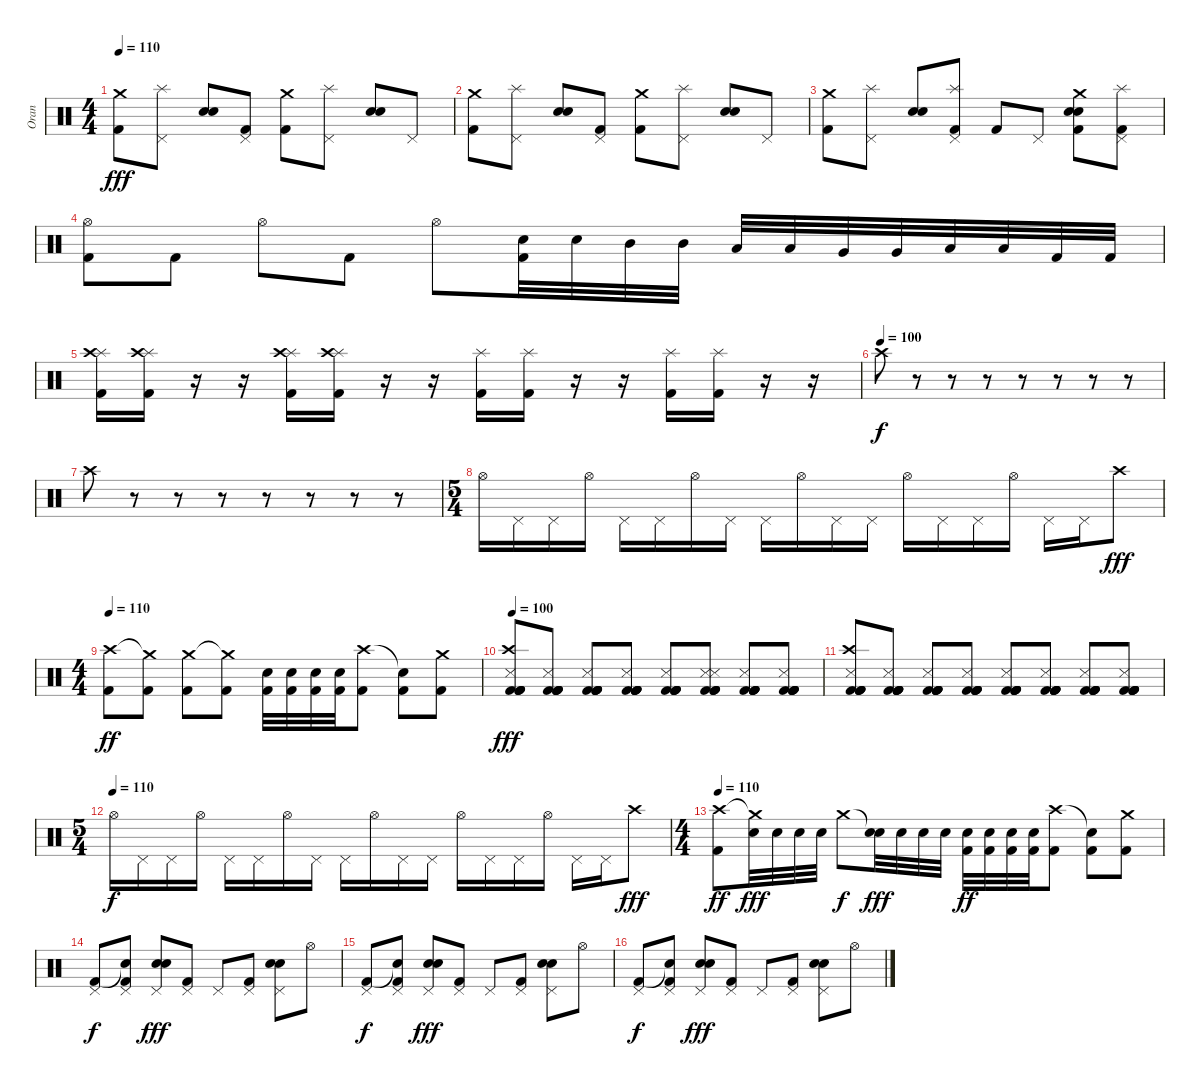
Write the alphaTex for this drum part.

\track ("Oran" "Oran") {instrument percussion}
\staff {score}
\articulation defaults
\ts (4 4)
\tempo 110
\clef neutral
\ks c
("Crash medium (hit)" "Kick (hit) 2").8{dy fff} ("Splash (hit)" "Pedal Hi-Hat (hit)").8 ("Snare (hit) 2" "Electric Snare (hit)").8 ("Pedal Hi-Hat (hit)" "Kick (hit) 2").8 ("Crash medium (hit)" "Kick (hit) 2").8 ("Splash (hit)" "Pedal Hi-Hat (hit)").8 ("Electric Snare (hit)" "Snare (hit) 2").8 "Pedal Hi-Hat (hit)".8 |
("Crash medium (hit)" "Kick (hit) 2").8 ("Splash (hit)" "Pedal Hi-Hat (hit)").8 ("Snare (hit) 2" "Electric Snare (hit)").8 ("Pedal Hi-Hat (hit)" "Kick (hit) 2").8 ("Crash medium (hit)" "Kick (hit) 2").8 ("Splash (hit)" "Pedal Hi-Hat (hit)").8 ("Electric Snare (hit)" "Snare (hit) 2").8 "Pedal Hi-Hat (hit)".8 |
("Crash medium (hit)" "Kick (hit) 2").8 ("Splash (hit)" "Pedal Hi-Hat (hit)").8 ("Snare (hit) 2" "Electric Snare (hit)").8 ("Splash (hit)" "Pedal Hi-Hat (hit)" "Kick (hit) 2").8 "Kick (hit) 2".8 "Pedal Hi-Hat (hit)".8 ("Crash medium (hit)" "Electric Snare (hit)" "Snare (hit) 2" "Kick (hit) 2").8 ("Splash (hit)" "Pedal Hi-Hat (hit)" "Kick (hit) 2").8 |
("Hi-Hat (open)" "Kick (hit) 2").8 "Kick (hit) 2".8 "Hi-Hat (open)".8 "Kick (hit) 2".8 "Hi-Hat (open)".8 ("Electric Snare (hit)" "Kick (hit) 2").32 "Electric Snare (hit)".32 "Mid Tom (hit)".32 "Mid Tom (hit)".32 "Low Tom (hit)".32 "Low Tom (hit)".32 "Very Low Tom (hit)".32 "Very Low Tom (hit)".32 "Low Floor Tom (hit)".32 "Low Floor Tom (hit)".32 "Kick (hit) 2".32 "Kick (hit) 2".32 |
("Splash (hit)" "Crash high (hit)" "Kick (hit) 2").16 ("Splash (hit)" "Crash high (hit)" "Kick (hit) 2").16 r.16 r.16 ("Splash (hit)" "Crash high (hit)" "Kick (hit) 2").16 ("Splash (hit)" "Crash high (hit)" "Kick (hit) 2").16 r.16 r.16 ("Splash (hit)" "Kick (hit) 2").16 ("Splash (hit)" "Kick (hit) 2").16 r.16 r.16 ("Splash (hit)" "Kick (hit) 2").16 ("Splash (hit)" "Kick (hit) 2").16 r.16 r.16 |
\tempo (100)
"Crash high (hit)".8{dy f} r.8 r.8 r.8 r.8 r.8 r.8 r.8 |
"Crash high (hit)".8 r.8 r.8 r.8 r.8 r.8 r.8 r.8 |
\ts (5 4)
"Hi-Hat (open)".16 "Pedal Hi-Hat (hit)".16 "Pedal Hi-Hat (hit)".16 "Hi-Hat (open)".16 "Pedal Hi-Hat (hit)".16 "Pedal Hi-Hat (hit)".16 "Hi-Hat (open)".16 "Pedal Hi-Hat (hit)".16 "Pedal Hi-Hat (hit)".16 "Hi-Hat (open)".16 "Pedal Hi-Hat (hit)".16 "Pedal Hi-Hat (hit)".16 "Hi-Hat (open)".16 "Pedal Hi-Hat (hit)".16 "Pedal Hi-Hat (hit)".16 "Hi-Hat (open)".16 "Pedal Hi-Hat (hit)".16 "Pedal Hi-Hat (hit)".16 "Crash high (hit)".8{dy fff} |
\ts (4 4)
\tempo 110
("Crash high (hit)" "Kick (hit) 2").8{dy ff} ("Crash medium (hit)"{t} "Kick (hit) 2").8 ("Crash medium (hit)" "Kick (hit) 2").8 ("Crash medium (hit)"{t} "Kick (hit) 2").8 ("Snare (hit) 2" "Kick (hit) 2").32 ("Snare (hit) 2" "Kick (hit) 2").32 ("Snare (hit) 2" "Kick (hit) 2").32 ("Snare (hit) 2" "Kick (hit) 2").32 ("Crash high (hit)" "Kick (hit) 2").8 ("Snare (hit)"{t} "Kick (hit) 2").8 ("Crash medium (hit)" "Kick (hit) 2").8 |
\tempo 100
("Kick (hit) 2" "Kick (hit) 2" "Crash high (hit)" "Snare (side stick) 3" "Kick (hit) 2" "Kick (hit) 2").8{dy fff} ("Kick (hit) 2" "Kick (hit) 2" "Kick (hit) 2" "Snare (side stick) 3" "Kick (hit) 2" "Kick (hit) 2").8 ("Kick (hit) 2" "Kick (hit) 2" "Kick (hit) 2" "Snare (side stick) 3" "Kick (hit) 2" "Kick (hit) 2").8 ("Kick (hit) 2" "Kick (hit) 2" "Kick (hit) 2" "Snare (side stick) 3" "Kick (hit) 2" "Kick (hit) 2").8 ("Kick (hit) 2" "Kick (hit) 2" "Kick (hit) 2" "Snare (side stick) 3" "Kick (hit) 2" "Kick (hit) 2").8 ("Kick (hit) 2" "Kick (hit) 2" "Kick (hit) 2" "Snare (side stick) 3" "Snare (side stick) 3" "Kick (hit) 2").8 ("Kick (hit) 2" "Kick (hit) 2" "Kick (hit) 2" "Snare (side stick) 3" "Kick (hit) 2" "Kick (hit) 2").8 ("Kick (hit) 2" "Kick (hit) 2" "Kick (hit) 2" "Snare (side stick) 3" "Kick (hit) 2" "Kick (hit) 2").8 |
("Kick (hit) 2" "Kick (hit) 2" "Kick (hit) 2" "Crash high (hit)" "Snare (side stick) 3" "Kick (hit) 2").8 ("Kick (hit) 2" "Kick (hit) 2" "Kick (hit) 2" "Snare (side stick) 3" "Kick (hit) 2" "Kick (hit) 2").8 ("Kick (hit) 2" "Kick (hit) 2" "Kick (hit) 2" "Snare (side stick) 3" "Kick (hit) 2" "Kick (hit) 2").8 ("Kick (hit) 2" "Kick (hit) 2" "Kick (hit) 2" "Snare (side stick) 3" "Kick (hit) 2" "Kick (hit) 2").8 ("Kick (hit) 2" "Kick (hit) 2" "Kick (hit) 2" "Snare (side stick) 3" "Kick (hit) 2" "Kick (hit) 2").8 ("Kick (hit) 2" "Kick (hit) 2" "Kick (hit) 2" "Snare (side stick) 3" "Kick (hit) 2" "Kick (hit) 2").8 ("Kick (hit) 2" "Kick (hit) 2" "Kick (hit) 2" "Snare (side stick) 3" "Kick (hit) 2" "Kick (hit) 2").8 ("Kick (hit) 2" "Kick (hit) 2" "Kick (hit) 2" "Snare (side stick) 3" "Kick (hit) 2" "Kick (hit) 2").8 |
\ts (5 4)
\tempo (110)
"Hi-Hat (open)".16{dy f} "Pedal Hi-Hat (hit)".16 "Pedal Hi-Hat (hit)".16 "Hi-Hat (open)".16 "Pedal Hi-Hat (hit)".16 "Pedal Hi-Hat (hit)".16 "Hi-Hat (open)".16 "Pedal Hi-Hat (hit)".16 "Pedal Hi-Hat (hit)".16 "Hi-Hat (open)".16 "Pedal Hi-Hat (hit)".16 "Pedal Hi-Hat (hit)".16 "Hi-Hat (open)".16 "Pedal Hi-Hat (hit)".16 "Pedal Hi-Hat (hit)".16 "Hi-Hat (open)".16 "Pedal Hi-Hat (hit)".16 "Pedal Hi-Hat (hit)".16 "Crash high (hit)".8{dy fff} |
\ts (4 4)
\tempo 110
("Crash high (hit)" "Kick (hit) 2").8{dy ff} ("Crash medium (hit)"{t} "Snare (hit) 2").32{dy fff} "Snare (hit) 2".32 "Snare (hit) 2".32 "Snare (hit) 2".32 "Crash medium (hit)".8{dy f} ("Snare (hit) 2"{t} "Snare (hit) 2").32{dy fff} "Snare (hit) 2".32 "Snare (hit) 2".32 "Snare (hit) 2".32 ("Snare (hit) 2" "Kick (hit) 2").32{dy ff} ("Snare (hit) 2" "Kick (hit) 2").32 ("Snare (hit) 2" "Kick (hit) 2").32 ("Snare (hit) 2" "Kick (hit) 2").32 ("Crash high (hit)" "Kick (hit) 2").8 ("Snare (hit)"{t} "Kick (hit) 2").8 ("Crash medium (hit)" "Kick (hit) 2").8 |
("Pedal Hi-Hat (hit)" "Kick (hit) 2").8{dy f} ("Pedal Hi-Hat (hit)" "Snare (hit)"{t} "Kick (hit) 2").8 ("Pedal Hi-Hat (hit)" "Electric Snare (hit)" "Snare (hit) 2").8{dy fff} ("Pedal Hi-Hat (hit)" "Kick (hit) 2").8 "Pedal Hi-Hat (hit)".8 ("Pedal Hi-Hat (hit)" "Kick (hit) 2").8 ("Pedal Hi-Hat (hit)" "Electric Snare (hit)" "Snare (hit) 2").8 "Hi-Hat (open)".8 |
("Pedal Hi-Hat (hit)" "Kick (hit) 2").8{dy f} ("Pedal Hi-Hat (hit)" "Snare (hit)"{t} "Kick (hit) 2").8 ("Pedal Hi-Hat (hit)" "Electric Snare (hit)" "Snare (hit) 2").8{dy fff} ("Pedal Hi-Hat (hit)" "Kick (hit) 2").8 "Pedal Hi-Hat (hit)".8 ("Pedal Hi-Hat (hit)" "Kick (hit) 2").8 ("Pedal Hi-Hat (hit)" "Electric Snare (hit)" "Snare (hit) 2").8 "Hi-Hat (open)".8 |
("Pedal Hi-Hat (hit)" "Kick (hit) 2").8{dy f} ("Pedal Hi-Hat (hit)" "Snare (hit)"{t} "Kick (hit) 2").8 ("Pedal Hi-Hat (hit)" "Electric Snare (hit)" "Snare (hit) 2").8{dy fff} ("Pedal Hi-Hat (hit)" "Kick (hit) 2").8 "Pedal Hi-Hat (hit)".8 ("Pedal Hi-Hat (hit)" "Kick (hit) 2").8 ("Pedal Hi-Hat (hit)" "Electric Snare (hit)" "Snare (hit) 2").8 "Hi-Hat (open)".8
